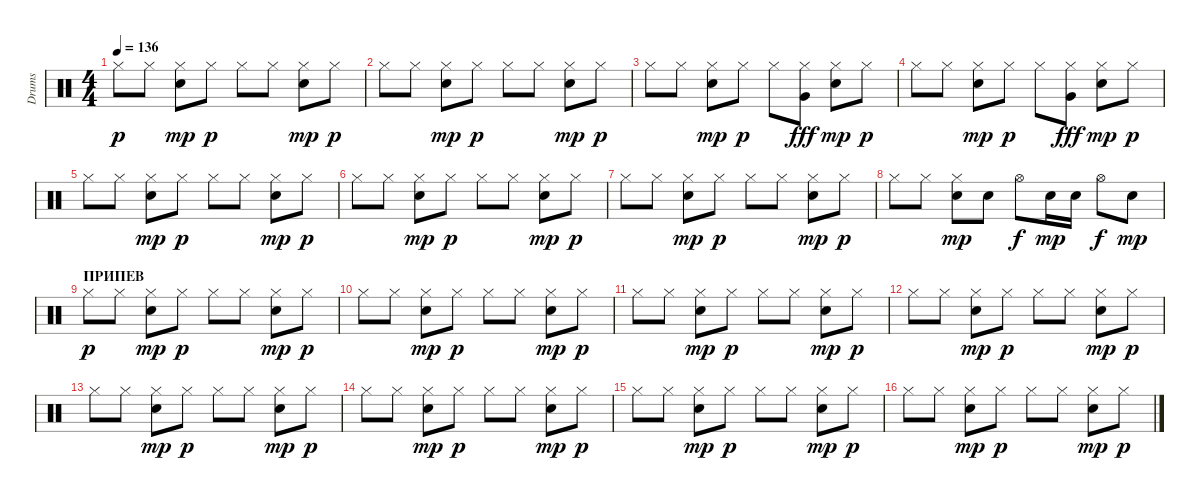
\track ("Drums" "Drums") {instrument percussion}
\staff {score}
\articulation defaults
\ts (4 4)
\tempo 136
\clef neutral
\ks c "Hi-Hat (closed)".8{dy p} "Hi-Hat (closed)".8
("Hi-Hat (closed)" "Electric Snare (hit)").8{dy mp} "Hi-Hat (closed)".8{dy p} "Hi-Hat (closed)".8 "Hi-Hat (closed)".8 ("Hi-Hat (closed)" "Electric Snare (hit)").8{dy mp} "Hi-Hat (closed)".8{dy p} |
"Hi-Hat (closed)".8 "Hi-Hat (closed)".8 ("Hi-Hat (closed)" "Electric Snare (hit)").8{dy mp} "Hi-Hat (closed)".8{dy p} "Hi-Hat (closed)".8 "Hi-Hat (closed)".8 ("Hi-Hat (closed)" "Electric Snare (hit)").8{dy mp} "Hi-Hat (closed)".8{dy p} |
"Hi-Hat (closed)".8 "Hi-Hat (closed)".8 ("Hi-Hat (closed)" "Electric Snare (hit)").8{dy mp} "Hi-Hat (closed)".8{dy p} "Hi-Hat (closed)".8 ("Hi-Hat (closed)" "Very Low Tom (hit)").8{dy fff} ("Hi-Hat (closed)" "Electric Snare (hit)").8{dy mp} "Hi-Hat (closed)".8{dy p} |
"Hi-Hat (closed)".8 "Hi-Hat (closed)".8 ("Hi-Hat (closed)" "Electric Snare (hit)").8{dy mp} "Hi-Hat (closed)".8{dy p} "Hi-Hat (closed)".8 ("Hi-Hat (closed)" "Very Low Tom (hit)").8{dy fff} ("Hi-Hat (closed)" "Electric Snare (hit)").8{dy mp} "Hi-Hat (closed)".8{dy p} |
"Hi-Hat (closed)".8 "Hi-Hat (closed)".8 ("Hi-Hat (closed)" "Electric Snare (hit)").8{dy mp} "Hi-Hat (closed)".8{dy p} "Hi-Hat (closed)".8 "Hi-Hat (closed)".8 ("Hi-Hat (closed)" "Electric Snare (hit)").8{dy mp} "Hi-Hat (closed)".8{dy p} |
"Hi-Hat (closed)".8 "Hi-Hat (closed)".8 ("Hi-Hat (closed)" "Electric Snare (hit)").8{dy mp} "Hi-Hat (closed)".8{dy p} "Hi-Hat (closed)".8 "Hi-Hat (closed)".8 ("Hi-Hat (closed)" "Electric Snare (hit)").8{dy mp} "Hi-Hat (closed)".8{dy p} |
"Hi-Hat (closed)".8 "Hi-Hat (closed)".8 ("Hi-Hat (closed)" "Electric Snare (hit)").8{dy mp} "Hi-Hat (closed)".8{dy p} "Hi-Hat (closed)".8 "Hi-Hat (closed)".8 ("Hi-Hat (closed)" "Electric Snare (hit)").8{dy mp} "Hi-Hat (closed)".8{dy p} |
"Hi-Hat (closed)".8 "Hi-Hat (closed)".8 ("Hi-Hat (closed)" "Electric Snare (hit)").8{dy mp} "Electric Snare (hit)".8 "Hi-Hat (open)".8{dy f} "Electric Snare (hit)".16{dy mp} "Electric Snare (hit)".16 "Hi-Hat (open)".8{dy f} "Electric Snare (hit)".8{dy mp} |
\section ("" "ПРИПЕВ")
"Hi-Hat (closed)".8{dy p} "Hi-Hat (closed)".8 ("Hi-Hat (closed)" "Electric Snare (hit)").8{dy mp} "Hi-Hat (closed)".8{dy p} "Hi-Hat (closed)".8 "Hi-Hat (closed)".8 ("Hi-Hat (closed)" "Electric Snare (hit)").8{dy mp} "Hi-Hat (closed)".8{dy p} |
"Hi-Hat (closed)".8 "Hi-Hat (closed)".8 ("Hi-Hat (closed)" "Electric Snare (hit)").8{dy mp} "Hi-Hat (closed)".8{dy p} "Hi-Hat (closed)".8 "Hi-Hat (closed)".8 ("Hi-Hat (closed)" "Electric Snare (hit)").8{dy mp} "Hi-Hat (closed)".8{dy p} |
"Hi-Hat (closed)".8 "Hi-Hat (closed)".8 ("Hi-Hat (closed)" "Electric Snare (hit)").8{dy mp} "Hi-Hat (closed)".8{dy p} "Hi-Hat (closed)".8 "Hi-Hat (closed)".8 ("Hi-Hat (closed)" "Electric Snare (hit)").8{dy mp} "Hi-Hat (closed)".8{dy p} |
"Hi-Hat (closed)".8 "Hi-Hat (closed)".8 ("Hi-Hat (closed)" "Electric Snare (hit)").8{dy mp} "Hi-Hat (closed)".8{dy p} "Hi-Hat (closed)".8 "Hi-Hat (closed)".8 ("Hi-Hat (closed)" "Electric Snare (hit)").8{dy mp} "Hi-Hat (closed)".8{dy p} |
"Hi-Hat (closed)".8 "Hi-Hat (closed)".8 ("Hi-Hat (closed)" "Electric Snare (hit)").8{dy mp} "Hi-Hat (closed)".8{dy p} "Hi-Hat (closed)".8 "Hi-Hat (closed)".8 ("Hi-Hat (closed)" "Electric Snare (hit)").8{dy mp} "Hi-Hat (closed)".8{dy p} |
"Hi-Hat (closed)".8 "Hi-Hat (closed)".8 ("Hi-Hat (closed)" "Electric Snare (hit)").8{dy mp} "Hi-Hat (closed)".8{dy p} "Hi-Hat (closed)".8 "Hi-Hat (closed)".8 ("Hi-Hat (closed)" "Electric Snare (hit)").8{dy mp} "Hi-Hat (closed)".8{dy p} |
"Hi-Hat (closed)".8 "Hi-Hat (closed)".8 ("Hi-Hat (closed)" "Electric Snare (hit)").8{dy mp} "Hi-Hat (closed)".8{dy p} "Hi-Hat (closed)".8 "Hi-Hat (closed)".8 ("Hi-Hat (closed)" "Electric Snare (hit)").8{dy mp} "Hi-Hat (closed)".8{dy p} |
"Hi-Hat (closed)".8 "Hi-Hat (closed)".8 ("Hi-Hat (closed)" "Electric Snare (hit)").8{dy mp} "Hi-Hat (closed)".8{dy p} "Hi-Hat (closed)".8 "Hi-Hat (closed)".8 ("Hi-Hat (closed)" "Electric Snare (hit)").8{dy mp} "Hi-Hat (closed)".8{dy p}
